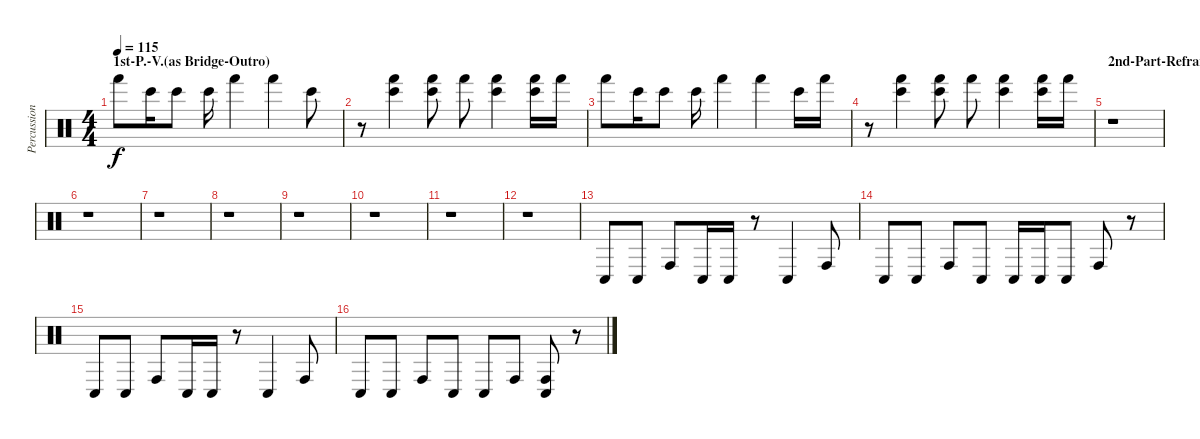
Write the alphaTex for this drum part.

\track ("Percussions" "Percussion") {instrument percussion}
\staff {score}
\articulation defaults
\ts (4 4)
\section ("" "1st-P.-V.(as Bridge-Outro)")
\tempo 115
\clef neutral
\ks c "Hand (hit)".8{dy f} "Bongo High (hit)".16 "Bongo High (hit)".8 "Bongo High (hit)".16 "Hand (hit)".4 "Hand (hit)".4 "Bongo High (hit)".8
|
r.8 ("Bongo High (hit)" "Hand (hit)").4 ("Bongo High (hit)" "Hand (hit)").8 "Hand (hit)".8 ("Bongo High (hit)" "Hand (hit)").4 ("Bongo High (hit)" "Hand (hit)").16 "Hand (hit)".16 |
"Hand (hit)".8 "Bongo High (hit)".16 "Bongo High (hit)".8 "Bongo High (hit)".16 "Hand (hit)".4 "Hand (hit)".4 "Bongo High (hit)".16 "Hand (hit)".16 |
r.8 ("Bongo High (hit)" "Hand (hit)").4 ("Bongo High (hit)" "Hand (hit)").8 "Hand (hit)".8 ("Bongo High (hit)" "Hand (hit)").4 ("Bongo High (hit)" "Hand (hit)").16 "Hand (hit)".16 |
\section ("" "2nd-Part-Refrain")
r.1 |
r.1 |
r.1 |
r.1 |
r.1 |
r.1 |
r.1 |
r.1 |
"Conga low (hit)".8 "Conga low (hit)".8 "Conga high (hit)".8 "Conga low (hit)".16 "Conga low (hit)".16 r.8 "Conga low (hit)".4 "Conga high (hit)".8 |
"Conga low (hit)".8 "Conga low (hit)".8 "Conga high (hit)".8 "Conga low (hit)".8 "Conga low (hit)".16 "Conga low (hit)".16 "Conga low (hit)".8 "Conga high (hit)".8 r.8 |
"Conga low (hit)".8 "Conga low (hit)".8 "Conga high (hit)".8 "Conga low (hit)".16 "Conga low (hit)".16 r.8 "Conga low (hit)".4 "Conga high (hit)".8 |
"Conga low (hit)".8 "Conga low (hit)".8 "Conga high (hit)".8 "Conga low (hit)".8 "Conga low (hit)".8 "Conga high (hit)".8 ("Conga high (hit)" "Conga low (hit)").8 r.8
